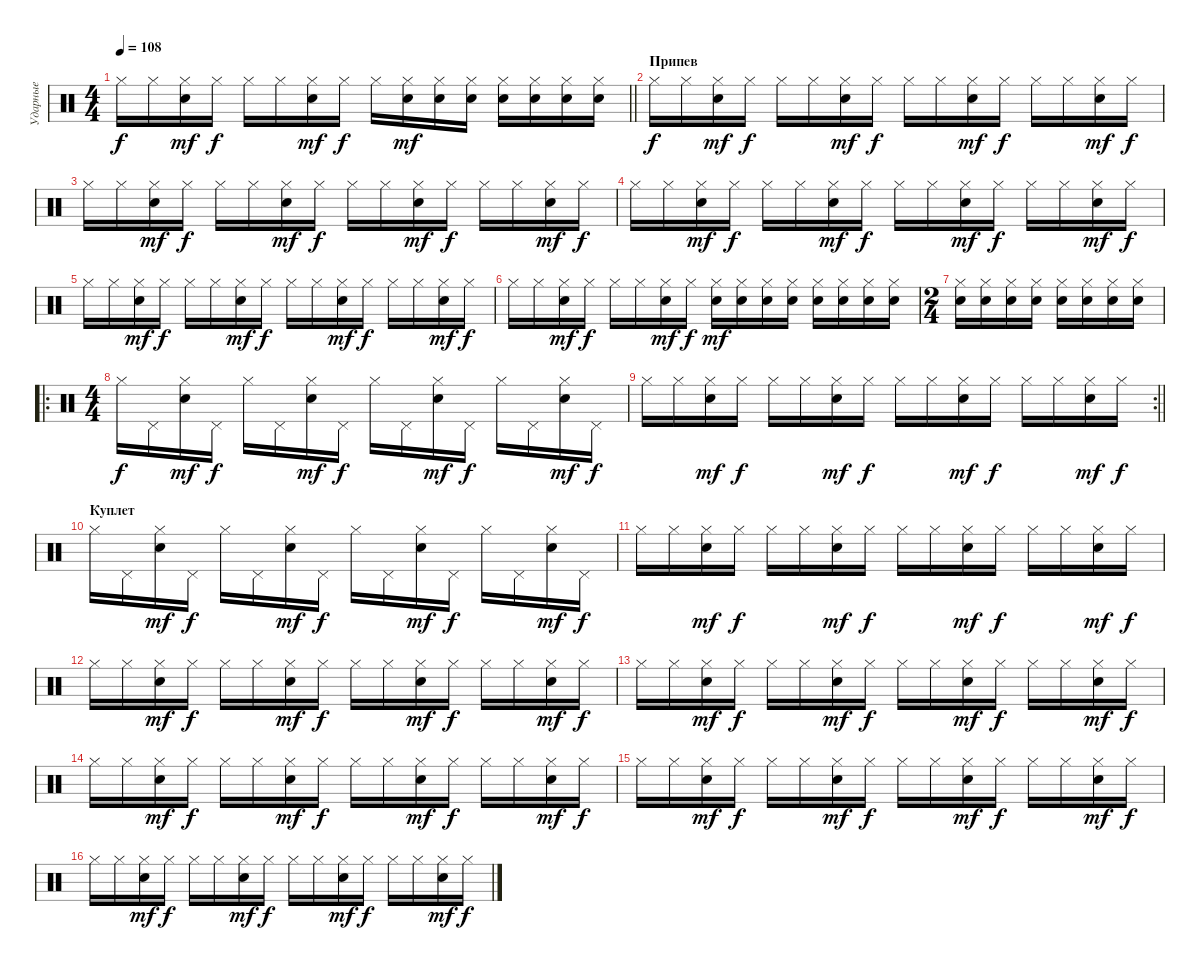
\track ("Ударные" "Ударные") {instrument percussion}
\staff {score}
\articulation defaults
\ts (4 4)
\tempo 108
\clef neutral
\barLineRight lightlight
\ks c "Hi-Hat (closed)".16{dy f} "Hi-Hat (closed)".16
("Hi-Hat (closed)" "Snare (hit) 2").16{dy mf} "Hi-Hat (closed)".16{dy f} "Hi-Hat (closed)".16 "Hi-Hat (closed)".16 ("Hi-Hat (closed)" "Snare (hit) 2").16{dy mf} "Hi-Hat (closed)".16{dy f} "Hi-Hat (closed)".16 ("Hi-Hat (closed)" "Snare (hit) 2").16{dy mf} ("Hi-Hat (closed)" "Snare (hit) 2").16 ("Hi-Hat (closed)" "Snare (hit) 2").16 ("Hi-Hat (closed)" "Snare (hit) 2").16 ("Hi-Hat (closed)" "Snare (hit) 2").16 ("Hi-Hat (closed)" "Snare (hit) 2").16 ("Hi-Hat (closed)" "Snare (hit) 2").16 |
\section ("" "Припев")
"Hi-Hat (closed)".16{dy f} "Hi-Hat (closed)".16 ("Hi-Hat (closed)" "Snare (hit) 2").16{dy mf} "Hi-Hat (closed)".16{dy f} "Hi-Hat (closed)".16 "Hi-Hat (closed)".16 ("Hi-Hat (closed)" "Snare (hit) 2").16{dy mf} "Hi-Hat (closed)".16{dy f} "Hi-Hat (closed)".16 "Hi-Hat (closed)".16 ("Hi-Hat (closed)" "Snare (hit) 2").16{dy mf} "Hi-Hat (closed)".16{dy f} "Hi-Hat (closed)".16 "Hi-Hat (closed)".16 ("Hi-Hat (closed)" "Snare (hit) 2").16{dy mf} "Hi-Hat (closed)".16{dy f} |
"Hi-Hat (closed)".16 "Hi-Hat (closed)".16 ("Hi-Hat (closed)" "Snare (hit) 2").16{dy mf} "Hi-Hat (closed)".16{dy f} "Hi-Hat (closed)".16 "Hi-Hat (closed)".16 ("Hi-Hat (closed)" "Snare (hit) 2").16{dy mf} "Hi-Hat (closed)".16{dy f} "Hi-Hat (closed)".16 "Hi-Hat (closed)".16 ("Hi-Hat (closed)" "Snare (hit) 2").16{dy mf} "Hi-Hat (closed)".16{dy f} "Hi-Hat (closed)".16 "Hi-Hat (closed)".16 ("Hi-Hat (closed)" "Snare (hit) 2").16{dy mf} "Hi-Hat (closed)".16{dy f} |
"Hi-Hat (closed)".16 "Hi-Hat (closed)".16 ("Hi-Hat (closed)" "Snare (hit) 2").16{dy mf} "Hi-Hat (closed)".16{dy f} "Hi-Hat (closed)".16 "Hi-Hat (closed)".16 ("Hi-Hat (closed)" "Snare (hit) 2").16{dy mf} "Hi-Hat (closed)".16{dy f} "Hi-Hat (closed)".16 "Hi-Hat (closed)".16 ("Hi-Hat (closed)" "Snare (hit) 2").16{dy mf} "Hi-Hat (closed)".16{dy f} "Hi-Hat (closed)".16 "Hi-Hat (closed)".16 ("Hi-Hat (closed)" "Snare (hit) 2").16{dy mf} "Hi-Hat (closed)".16{dy f} |
"Hi-Hat (closed)".16 "Hi-Hat (closed)".16 ("Hi-Hat (closed)" "Snare (hit) 2").16{dy mf} "Hi-Hat (closed)".16{dy f} "Hi-Hat (closed)".16 "Hi-Hat (closed)".16 ("Hi-Hat (closed)" "Snare (hit) 2").16{dy mf} "Hi-Hat (closed)".16{dy f} "Hi-Hat (closed)".16 "Hi-Hat (closed)".16 ("Hi-Hat (closed)" "Snare (hit) 2").16{dy mf} "Hi-Hat (closed)".16{dy f} "Hi-Hat (closed)".16 "Hi-Hat (closed)".16 ("Hi-Hat (closed)" "Snare (hit) 2").16{dy mf} "Hi-Hat (closed)".16{dy f} |
"Hi-Hat (closed)".16 "Hi-Hat (closed)".16 ("Hi-Hat (closed)" "Snare (hit) 2").16{dy mf} "Hi-Hat (closed)".16{dy f} "Hi-Hat (closed)".16 "Hi-Hat (closed)".16 ("Hi-Hat (closed)" "Snare (hit) 2").16{dy mf} "Hi-Hat (closed)".16{dy f} ("Hi-Hat (closed)" "Snare (hit) 2").16{dy mf} ("Hi-Hat (closed)" "Snare (hit) 2").16 ("Hi-Hat (closed)" "Snare (hit) 2").16 ("Hi-Hat (closed)" "Snare (hit) 2").16 ("Hi-Hat (closed)" "Snare (hit) 2").16 ("Hi-Hat (closed)" "Snare (hit) 2").16 ("Hi-Hat (closed)" "Snare (hit) 2").16 ("Hi-Hat (closed)" "Snare (hit) 2").16 |
\ts (2 4)
("Hi-Hat (closed)" "Snare (hit) 2").16 ("Hi-Hat (closed)" "Snare (hit) 2").16 ("Hi-Hat (closed)" "Snare (hit) 2").16 ("Hi-Hat (closed)" "Snare (hit) 2").16 ("Hi-Hat (closed)" "Snare (hit) 2").16 ("Hi-Hat (closed)" "Snare (hit) 2").16 ("Hi-Hat (closed)" "Snare (hit) 2").16 ("Hi-Hat (closed)" "Snare (hit) 2").16 |
\ro
\ts (4 4)
"Hi-Hat (closed)".16{dy f} "Pedal Hi-Hat (hit)".16 ("Hi-Hat (closed)" "Snare (hit) 2").16{dy mf} "Pedal Hi-Hat (hit)".16{dy f} "Hi-Hat (closed)".16 "Pedal Hi-Hat (hit)".16 ("Hi-Hat (closed)" "Snare (hit) 2").16{dy mf} "Pedal Hi-Hat (hit)".16{dy f} "Hi-Hat (closed)".16 "Pedal Hi-Hat (hit)".16 ("Hi-Hat (closed)" "Snare (hit) 2").16{dy mf} "Pedal Hi-Hat (hit)".16{dy f} "Hi-Hat (closed)".16 "Pedal Hi-Hat (hit)".16 ("Hi-Hat (closed)" "Snare (hit) 2").16{dy mf} "Pedal Hi-Hat (hit)".16{dy f} |
\rc 2
\barLineRight lightlight "Hi-Hat (closed)".16 "Hi-Hat (closed)".16
("Hi-Hat (closed)" "Snare (hit) 2").16{dy mf} "Hi-Hat (closed)".16{dy f} "Hi-Hat (closed)".16 "Hi-Hat (closed)".16 ("Hi-Hat (closed)" "Snare (hit) 2").16{dy mf} "Hi-Hat (closed)".16{dy f} "Hi-Hat (closed)".16 "Hi-Hat (closed)".16 ("Hi-Hat (closed)" "Snare (hit) 2").16{dy mf} "Hi-Hat (closed)".16{dy f} "Hi-Hat (closed)".16 "Hi-Hat (closed)".16 ("Hi-Hat (closed)" "Snare (hit) 2").16{dy mf} "Hi-Hat (closed)".16{dy f} |
\section ("" "Куплет")
"Hi-Hat (closed)".16 "Pedal Hi-Hat (hit)".16 ("Hi-Hat (closed)" "Snare (hit) 2").16{dy mf} "Pedal Hi-Hat (hit)".16{dy f} "Hi-Hat (closed)".16 "Pedal Hi-Hat (hit)".16 ("Hi-Hat (closed)" "Snare (hit) 2").16{dy mf} "Pedal Hi-Hat (hit)".16{dy f} "Hi-Hat (closed)".16 "Pedal Hi-Hat (hit)".16 ("Hi-Hat (closed)" "Snare (hit) 2").16{dy mf} "Pedal Hi-Hat (hit)".16{dy f} "Hi-Hat (closed)".16 "Pedal Hi-Hat (hit)".16 ("Hi-Hat (closed)" "Snare (hit) 2").16{dy mf} "Pedal Hi-Hat (hit)".16{dy f} |
"Hi-Hat (closed)".16 "Hi-Hat (closed)".16 ("Hi-Hat (closed)" "Snare (hit) 2").16{dy mf} "Hi-Hat (closed)".16{dy f} "Hi-Hat (closed)".16 "Hi-Hat (closed)".16 ("Hi-Hat (closed)" "Snare (hit) 2").16{dy mf} "Hi-Hat (closed)".16{dy f} "Hi-Hat (closed)".16 "Hi-Hat (closed)".16 ("Hi-Hat (closed)" "Snare (hit) 2").16{dy mf} "Hi-Hat (closed)".16{dy f} "Hi-Hat (closed)".16 "Hi-Hat (closed)".16 ("Hi-Hat (closed)" "Snare (hit) 2").16{dy mf} "Hi-Hat (closed)".16{dy f} |
"Hi-Hat (closed)".16 "Hi-Hat (closed)".16 ("Hi-Hat (closed)" "Snare (hit) 2").16{dy mf} "Hi-Hat (closed)".16{dy f} "Hi-Hat (closed)".16 "Hi-Hat (closed)".16 ("Hi-Hat (closed)" "Snare (hit) 2").16{dy mf} "Hi-Hat (closed)".16{dy f} "Hi-Hat (closed)".16 "Hi-Hat (closed)".16 ("Hi-Hat (closed)" "Snare (hit) 2").16{dy mf} "Hi-Hat (closed)".16{dy f} "Hi-Hat (closed)".16 "Hi-Hat (closed)".16 ("Hi-Hat (closed)" "Snare (hit) 2").16{dy mf} "Hi-Hat (closed)".16{dy f} |
"Hi-Hat (closed)".16 "Hi-Hat (closed)".16 ("Hi-Hat (closed)" "Snare (hit) 2").16{dy mf} "Hi-Hat (closed)".16{dy f} "Hi-Hat (closed)".16 "Hi-Hat (closed)".16 ("Hi-Hat (closed)" "Snare (hit) 2").16{dy mf} "Hi-Hat (closed)".16{dy f} "Hi-Hat (closed)".16 "Hi-Hat (closed)".16 ("Hi-Hat (closed)" "Snare (hit) 2").16{dy mf} "Hi-Hat (closed)".16{dy f} "Hi-Hat (closed)".16 "Hi-Hat (closed)".16 ("Hi-Hat (closed)" "Snare (hit) 2").16{dy mf} "Hi-Hat (closed)".16{dy f} |
"Hi-Hat (closed)".16 "Hi-Hat (closed)".16 ("Hi-Hat (closed)" "Snare (hit) 2").16{dy mf} "Hi-Hat (closed)".16{dy f} "Hi-Hat (closed)".16 "Hi-Hat (closed)".16 ("Hi-Hat (closed)" "Snare (hit) 2").16{dy mf} "Hi-Hat (closed)".16{dy f} "Hi-Hat (closed)".16 "Hi-Hat (closed)".16 ("Hi-Hat (closed)" "Snare (hit) 2").16{dy mf} "Hi-Hat (closed)".16{dy f} "Hi-Hat (closed)".16 "Hi-Hat (closed)".16 ("Hi-Hat (closed)" "Snare (hit) 2").16{dy mf} "Hi-Hat (closed)".16{dy f} |
"Hi-Hat (closed)".16 "Hi-Hat (closed)".16 ("Hi-Hat (closed)" "Snare (hit) 2").16{dy mf} "Hi-Hat (closed)".16{dy f} "Hi-Hat (closed)".16 "Hi-Hat (closed)".16 ("Hi-Hat (closed)" "Snare (hit) 2").16{dy mf} "Hi-Hat (closed)".16{dy f} "Hi-Hat (closed)".16 "Hi-Hat (closed)".16 ("Hi-Hat (closed)" "Snare (hit) 2").16{dy mf} "Hi-Hat (closed)".16{dy f} "Hi-Hat (closed)".16 "Hi-Hat (closed)".16 ("Hi-Hat (closed)" "Snare (hit) 2").16{dy mf} "Hi-Hat (closed)".16{dy f} |
"Hi-Hat (closed)".16 "Hi-Hat (closed)".16 ("Hi-Hat (closed)" "Snare (hit) 2").16{dy mf} "Hi-Hat (closed)".16{dy f} "Hi-Hat (closed)".16 "Hi-Hat (closed)".16 ("Hi-Hat (closed)" "Snare (hit) 2").16{dy mf} "Hi-Hat (closed)".16{dy f} "Hi-Hat (closed)".16 "Hi-Hat (closed)".16 ("Hi-Hat (closed)" "Snare (hit) 2").16{dy mf} "Hi-Hat (closed)".16{dy f} "Hi-Hat (closed)".16 "Hi-Hat (closed)".16 ("Hi-Hat (closed)" "Snare (hit) 2").16{dy mf} "Hi-Hat (closed)".16{dy f}
